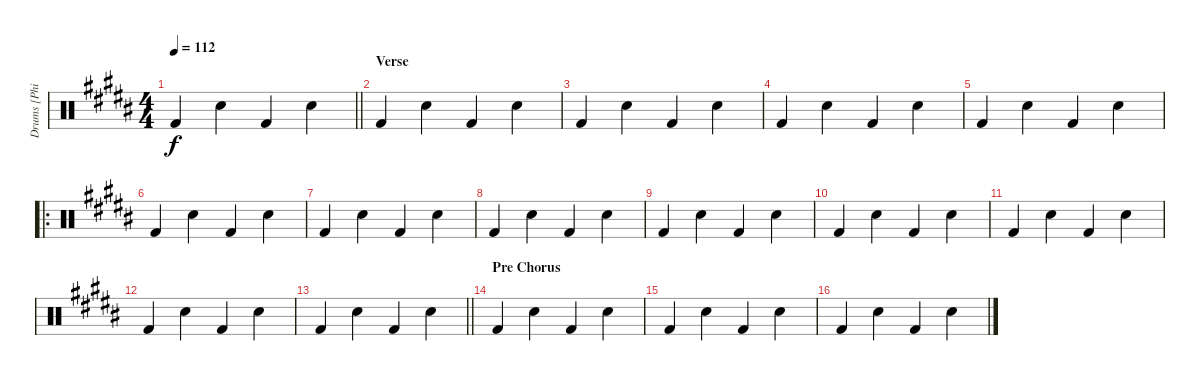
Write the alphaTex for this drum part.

\track ("Drums [Phill]" "Drums [Phi") {instrument percussion}
\staff {score}
\articulation defaults
\ts (4 4)
\tempo 112
\clef neutral
\barLineRight lightlight
\ks b "Kick (hit) 2".4{dy f} "Snare (hit) 2".4 "Kick (hit) 2".4 "Snare (hit) 2".4
|
\section ("" "Verse")
"Kick (hit) 2".4 "Snare (hit) 2".4 "Kick (hit) 2".4 "Snare (hit) 2".4 |
"Kick (hit) 2".4 "Snare (hit) 2".4 "Kick (hit) 2".4 "Snare (hit) 2".4 |
"Kick (hit) 2".4 "Snare (hit) 2".4 "Kick (hit) 2".4 "Snare (hit) 2".4 |
"Kick (hit) 2".4 "Snare (hit) 2".4 "Kick (hit) 2".4 "Snare (hit) 2".4 |
\ro "Kick (hit) 2".4 "Snare (hit) 2".4 "Kick (hit) 2".4 "Snare (hit) 2".4
|
"Kick (hit) 2".4 "Snare (hit) 2".4 "Kick (hit) 2".4 "Snare (hit) 2".4 |
"Kick (hit) 2".4 "Snare (hit) 2".4 "Kick (hit) 2".4 "Snare (hit) 2".4 |
"Kick (hit) 2".4 "Snare (hit) 2".4 "Kick (hit) 2".4 "Snare (hit) 2".4 |
"Kick (hit) 2".4 "Snare (hit) 2".4 "Kick (hit) 2".4 "Snare (hit) 2".4 |
"Kick (hit) 2".4 "Snare (hit) 2".4 "Kick (hit) 2".4 "Snare (hit) 2".4 |
"Kick (hit) 2".4 "Snare (hit) 2".4 "Kick (hit) 2".4 "Snare (hit) 2".4 |
\barLineRight lightlight "Kick (hit) 2".4 "Snare (hit) 2".4 "Kick (hit) 2".4 "Snare (hit) 2".4
|
\section ("" "Pre Chorus")
"Kick (hit) 2".4 "Snare (hit) 2".4 "Kick (hit) 2".4 "Snare (hit) 2".4 |
"Kick (hit) 2".4 "Snare (hit) 2".4 "Kick (hit) 2".4 "Snare (hit) 2".4 |
"Kick (hit) 2".4 "Snare (hit) 2".4 "Kick (hit) 2".4 "Snare (hit) 2".4
